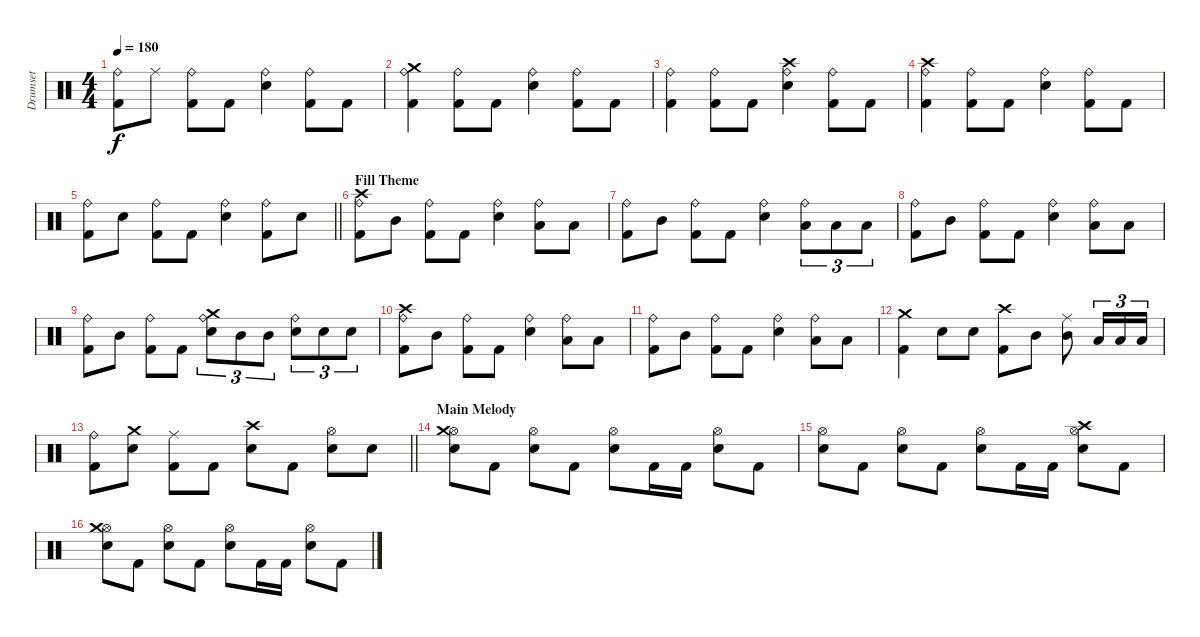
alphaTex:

\track ("Drumset" "Drumset") {instrument percussion}
\staff {score}
\articulation defaults
\ts (4 4)
\tempo 180
\clef neutral
\ks c
("Ride (bell)" "Kick (hit) 2").8{dy f} "Ride (middle)".8 ("Ride (bell)" "Kick (hit) 2").8 "Kick (hit) 2".8 ("Ride (bell)" "Snare (hit) 2").4 ("Ride (bell)" "Kick (hit) 2").8 "Kick (hit) 2".8 |
("Ride (bell)" "Crash medium (hit)" "Kick (hit) 2").4 ("Ride (bell)" "Kick (hit) 2").8 "Kick (hit) 2".8 ("Ride (bell)" "Snare (hit) 2").4 ("Ride (bell)" "Kick (hit) 2").8 "Kick (hit) 2".8 |
("Ride (bell)" "Kick (hit) 2").4 ("Ride (bell)" "Kick (hit) 2").8 "Kick (hit) 2".8 ("Ride (bell)" "Crash high (hit)" "Snare (hit) 2").4 ("Ride (bell)" "Kick (hit) 2").8 "Kick (hit) 2".8 |
("Ride (bell)" "Crash high (hit)" "Kick (hit) 2").4 ("Ride (bell)" "Kick (hit) 2").8 "Kick (hit) 2".8 ("Ride (bell)" "Snare (hit) 2").4 ("Ride (bell)" "Kick (hit) 2").8 "Kick (hit) 2".8 |
\barLineRight lightlight
("Ride (bell)" "Kick (hit) 2").8 "Snare (hit) 2".8 ("Ride (bell)" "Kick (hit) 2").8 "Kick (hit) 2".8 ("Ride (bell)" "Snare (hit) 2").4 ("Ride (bell)" "Kick (hit) 2").8 "Snare (hit) 2".8 |
\section ("" "Fill Theme")
("Ride (bell)" "Crash high (hit)" "Kick (hit) 2").8 "Mid Tom (hit)".8 ("Ride (bell)" "Kick (hit) 2").8 "Kick (hit) 2".8 ("Ride (bell)" "Snare (hit) 2").4 ("Ride (bell)" "Low Tom (hit)").8 "Low Tom (hit)".8 |
("Ride (bell)" "Kick (hit) 2").8 "Mid Tom (hit)".8 ("Ride (bell)" "Kick (hit) 2").8 "Kick (hit) 2".8 ("Ride (bell)" "Snare (hit) 2").4 ("Ride (bell)" "Low Tom (hit)").8{tu (3 2)} "Low Tom (hit)".8{tu (3 2)} "Low Tom (hit)".8{tu (3 2)} |
("Ride (bell)" "Kick (hit) 2").8 "Mid Tom (hit)".8 ("Ride (bell)" "Kick (hit) 2").8 "Kick (hit) 2".8 ("Ride (bell)" "Snare (hit) 2").4 ("Ride (bell)" "Low Tom (hit)").8 "Low Tom (hit)".8 |
("Ride (bell)" "Kick (hit) 2").8 "Mid Tom (hit)".8 ("Ride (bell)" "Kick (hit) 2").8 "Kick (hit) 2".8 ("Ride (bell)" "Crash medium (hit)" "Snare (hit) 2").8{tu (3 2)} "Mid Tom (hit)".8{tu (3 2)} "Mid Tom (hit)".8{tu (3 2)} ("Ride (bell)" "Snare (hit) 2").8{tu (3 2)} "Snare (hit) 2".8{tu (3 2)} "Snare (hit) 2".8{tu (3 2)} |
("Ride (bell)" "Crash high (hit)" "Kick (hit) 2").8 "Mid Tom (hit)".8 ("Ride (bell)" "Kick (hit) 2").8 "Kick (hit) 2".8 ("Ride (bell)" "Snare (hit) 2").4 ("Ride (bell)" "Low Tom (hit)").8 "Low Tom (hit)".8 |
("Ride (bell)" "Kick (hit) 2").8 "Mid Tom (hit)".8 ("Ride (bell)" "Kick (hit) 2").8 "Kick (hit) 2".8 ("Ride (bell)" "Snare (hit) 2").4 ("Ride (bell)" "Low Tom (hit)").8 "Low Tom (hit)".8 |
("Crash medium (hit)" "Kick (hit) 2").4 "Snare (hit) 2".8 "Snare (hit) 2".8 ("Crash high (hit)" "Kick (hit) 2").8 "Mid Tom (hit)".8 ("Ride (middle)" "Mid Tom (hit)").8 "Low Tom (hit)".16{tu (3 2)} "Low Tom (hit)".16{tu (3 2)} "Low Tom (hit)".16{tu (3 2)} |
\barLineRight lightlight
("Ride (bell)" "Kick (hit) 2").8 ("Crash medium (hit)" "Snare (hit) 2").8 ("Ride (middle)" "Kick (hit) 2").8 "Kick (hit) 2".8 ("Crash high (hit)" "Snare (hit) 2").8 "Kick (hit) 2".8 ("Hi-Hat (open)" "Snare (hit) 2").8 "Snare (hit) 2".8 |
\section ("" "Main Melody")
("Hi-Hat (open)" "Crash medium (hit)" "Snare (hit) 2").8 "Kick (hit) 2".8 ("Hi-Hat (open)" "Snare (hit) 2").8 "Kick (hit) 2".8 ("Hi-Hat (open)" "Snare (hit) 2").8 "Kick (hit) 2".16 "Kick (hit) 2".16 ("Hi-Hat (open)" "Snare (hit) 2").8 "Kick (hit) 2".8 |
("Hi-Hat (open)" "Snare (hit) 2").8 "Kick (hit) 2".8 ("Hi-Hat (open)" "Snare (hit) 2").8 "Kick (hit) 2".8 ("Hi-Hat (open)" "Snare (hit) 2").8 "Kick (hit) 2".16 "Kick (hit) 2".16 ("Hi-Hat (open)" "Crash high (hit)" "Snare (hit) 2").8 "Kick (hit) 2".8 |
("Hi-Hat (open)" "Crash medium (hit)" "Snare (hit) 2").8 "Kick (hit) 2".8 ("Hi-Hat (open)" "Snare (hit) 2").8 "Kick (hit) 2".8 ("Hi-Hat (open)" "Snare (hit) 2").8 "Kick (hit) 2".16 "Kick (hit) 2".16 ("Hi-Hat (open)" "Snare (hit) 2").8 "Kick (hit) 2".8
